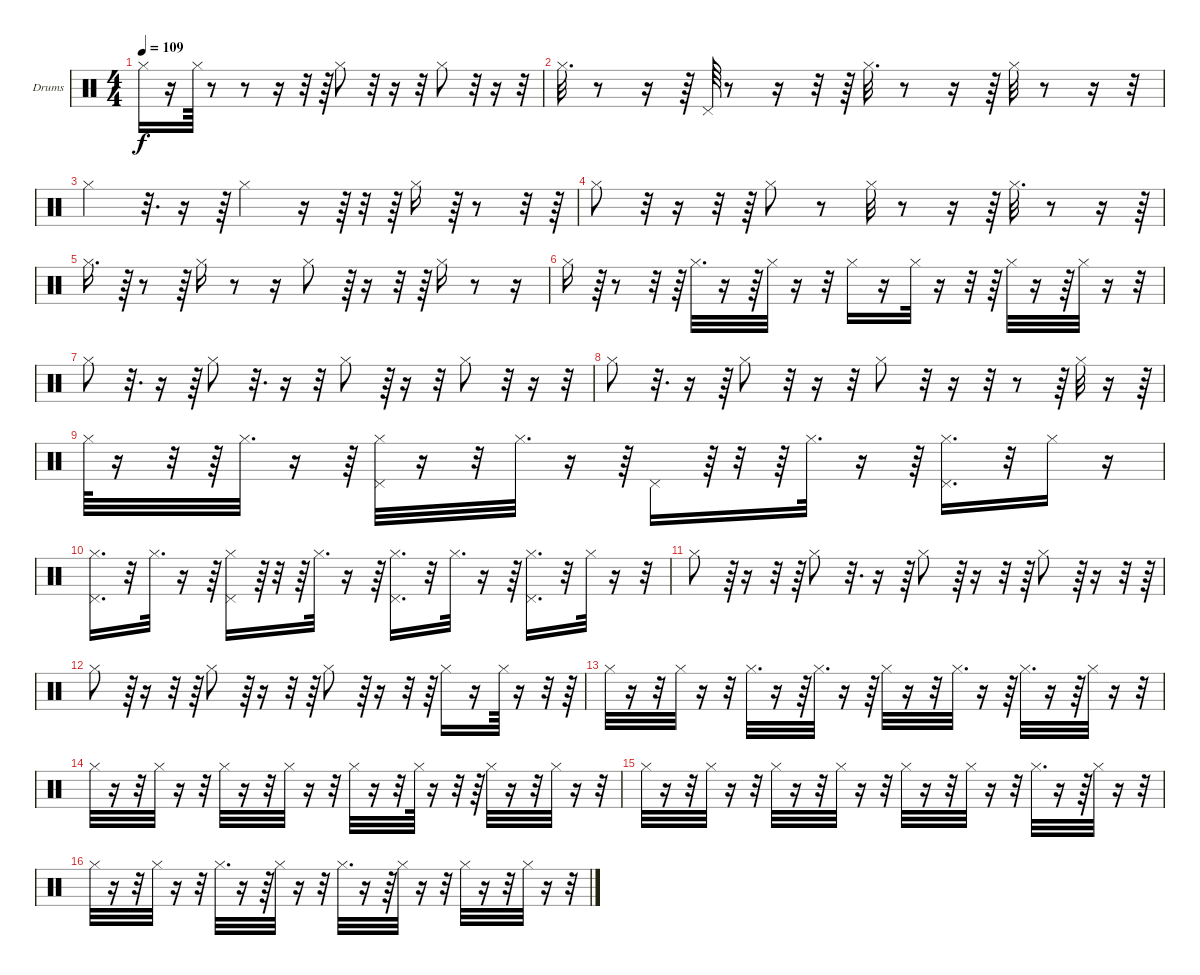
\bracketExtendMode groupsimilarinstruments
\firstSystemTrackNameOrientation horizontal
\otherSystemsTrackNameOrientation horizontal
\track ("Drumkit" "Drums") {instrument percussion}
\staff {score}
\articulation defaults
\ts (4 4)
\tempo 109
\clef neutral
\ks c "Hi-Hat (closed)".16{dy f}
r.16 "Hi-Hat (closed)".64 r.8 r.8 r.16 r.32 r.64 "Hi-Hat (closed)".8 r.32 r.16 r.32 "Hi-Hat (closed)".8 r.32 r.16 r.32 |
"Hi-Hat (closed)".32{d} r.8 r.16 r.64 "Pedal Hi-Hat (hit)".64 r.8 r.16 r.32 r.64 "Hi-Hat (closed)".32{d} r.8 r.16 r.64 "Hi-Hat (closed)".32 r.8 r.16 r.32 |
"Hi-Hat (closed)".4 r.32{d} r.16 r.64 "Hi-Hat (closed)".4 r.16 r.64 r.32 r.64 "Hi-Hat (closed)".16 r.64 r.8 r.32 r.64 |
"Hi-Hat (closed)".8 r.32 r.16 r.32 r.64 "Hi-Hat (closed)".8 r.8 "Hi-Hat (closed)".32 r.8 r.16 r.64 "Hi-Hat (closed)".32{d} r.8 r.16 r.64 |
"Hi-Hat (closed)".16{d} r.64 r.8 r.64 "Hi-Hat (closed)".16 r.8 r.16 "Hi-Hat (closed)".8 r.64 r.16 r.32 r.64 "Hi-Hat (closed)".16 r.8 r.16 |
"Hi-Hat (closed)".16 r.64 r.8 r.32 r.64 "Hi-Hat (closed)".32{d} r.16 r.64 "Hi-Hat (closed)".32 r.16 r.32 "Hi-Hat (closed)".16 r.16 "Hi-Hat (closed)".32 r.16 r.32 r.64 "Hi-Hat (closed)".32 r.16 r.64 "Hi-Hat (closed)".32 r.16 r.32 |
"Hi-Hat (closed)".8 r.32{d} r.16 r.64 "Hi-Hat (closed)".8 r.32{d} r.16 r.32 "Hi-Hat (closed)".8 r.64 r.16 r.32 "Hi-Hat (closed)".8 r.32 r.16 r.32 |
"Hi-Hat (closed)".8 r.32{d} r.16 r.64 "Hi-Hat (closed)".8 r.32 r.16 r.32 "Hi-Hat (closed)".8 r.32 r.16 r.32 r.8 r.64 "Hi-Hat (closed)".32 r.16 r.64 |
"Hi-Hat (closed)".64 r.16 r.32 r.64 "Hi-Hat (closed)".32{d} r.16 r.64 ("Hi-Hat (closed)" "Pedal Hi-Hat (hit)").32 r.16 r.32 "Hi-Hat (closed)".32{d} r.16 r.64 "Pedal Hi-Hat (hit)".16 r.64 r.32 r.64 "Hi-Hat (closed)".32{d} r.16 r.64 ("Hi-Hat (closed)" "Pedal Hi-Hat (hit)").16{d} r.32 "Hi-Hat (closed)".16 r.16 |
("Hi-Hat (closed)" "Pedal Hi-Hat (hit)").16{d} r.32 "Hi-Hat (closed)".32{d} r.16 r.64 ("Hi-Hat (closed)" "Pedal Hi-Hat (hit)").16 r.64 r.32 r.64 "Hi-Hat (closed)".32{d} r.16 r.64 ("Hi-Hat (closed)" "Pedal Hi-Hat (hit)").16{d} r.32 "Hi-Hat (closed)".32{d} r.16 r.64 ("Hi-Hat (closed)" "Pedal Hi-Hat (hit)").16{d} r.32 "Hi-Hat (closed)".32 r.16 r.32 |
"Hi-Hat (closed)".8 r.64 r.16 r.32 r.64 "Hi-Hat (closed)".8 r.32{d} r.16 r.64 "Hi-Hat (closed)".8 r.64 r.16 r.32 r.64 "Hi-Hat (closed)".8 r.64 r.16 r.32 r.64 |
"Hi-Hat (closed)".8 r.64 r.16 r.32 r.64 "Hi-Hat (closed)".8 r.64 r.16 r.32 r.64 "Hi-Hat (closed)".8 r.64 r.16 r.32 r.64 "Hi-Hat (closed)".16 r.16 "Hi-Hat (closed)".64 r.16 r.32 r.64 |
"Hi-Hat (closed)".32 r.16 r.32 "Hi-Hat (closed)".32 r.16 r.32 "Hi-Hat (closed)".32{d} r.16 r.64 "Hi-Hat (closed)".32{d} r.16 r.64 "Hi-Hat (closed)".32 r.16 r.32 "Hi-Hat (closed)".32{d} r.16 r.64 "Hi-Hat (closed)".32{d} r.16 r.64 "Hi-Hat (closed)".32 r.16 r.32 |
"Hi-Hat (closed)".32 r.16 r.32 "Hi-Hat (closed)".32 r.16 r.32 "Hi-Hat (closed)".32 r.16 r.32 "Hi-Hat (closed)".32 r.16 r.32 "Hi-Hat (closed)".32 r.16 r.32 "Hi-Hat (closed)".64 r.16 r.32 r.64 "Hi-Hat (closed)".32 r.16 r.32 "Hi-Hat (closed)".32 r.16 r.32 |
"Hi-Hat (closed)".32 r.16 r.32 "Hi-Hat (closed)".32 r.16 r.32 "Hi-Hat (closed)".32 r.16 r.32 "Hi-Hat (closed)".32 r.16 r.32 "Hi-Hat (closed)".32 r.16 r.32 "Hi-Hat (closed)".32 r.16 r.32 "Hi-Hat (closed)".32{d} r.16 r.64 "Hi-Hat (closed)".32 r.16 r.32 |
"Hi-Hat (closed)".32 r.16 r.32 "Hi-Hat (closed)".32 r.16 r.32 "Hi-Hat (closed)".32{d} r.16 r.64 "Hi-Hat (closed)".32 r.16 r.32 "Hi-Hat (closed)".32{d} r.16 r.64 "Hi-Hat (closed)".32 r.16 r.32 "Hi-Hat (closed)".32 r.16 r.32 "Hi-Hat (closed)".32 r.16 r.32
